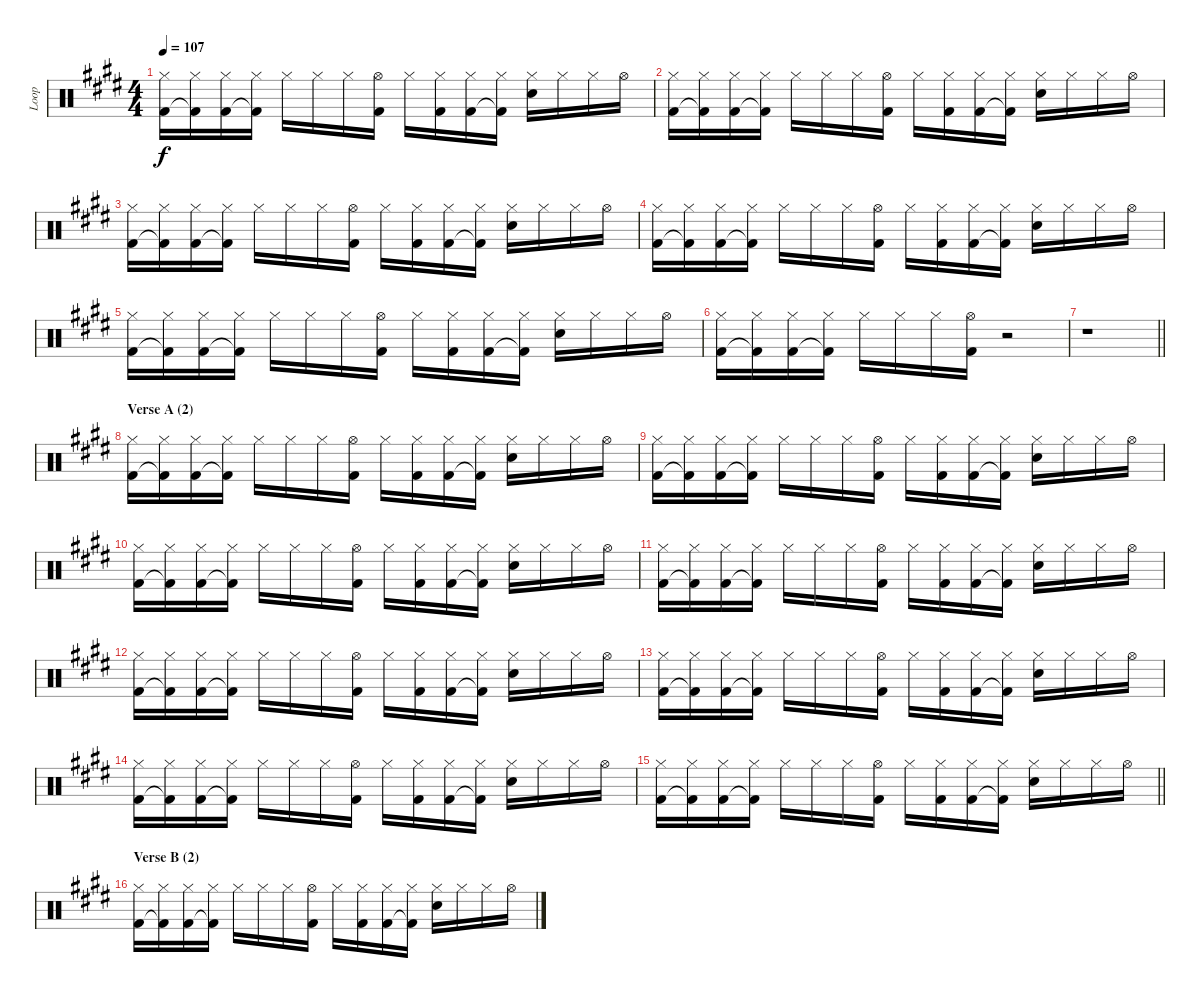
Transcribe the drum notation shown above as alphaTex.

\track ("Loop" "Loop") {instrument percussion}
\staff {score}
\articulation defaults
\ts (4 4)
\tempo 107
\clef neutral
\ks e
("Hi-Hat (closed)" "Kick (hit) 2").16{dy f} ("Hi-Hat (closed)" "Kick (hit) 2"{t}).16 ("Hi-Hat (closed)" "Kick (hit) 2").16 ("Hi-Hat (closed)" "Kick (hit) 2"{t}).16 "Hi-Hat (closed)".16 "Hi-Hat (closed)".16 "Hi-Hat (closed)".16 ("Hi-Hat (open)" "Kick (hit) 2").16 "Hi-Hat (closed)".16 ("Hi-Hat (closed)" "Kick (hit) 2").16 ("Hi-Hat (closed)" "Kick (hit) 2").16 ("Hi-Hat (closed)" "Kick (hit) 2"{t}).16 ("Hi-Hat (closed)" "Electric Snare (hit)").16 "Hi-Hat (closed)".16 "Hi-Hat (closed)".16 "Hi-Hat (open)".16 |
("Hi-Hat (closed)" "Kick (hit) 2").16 ("Hi-Hat (closed)" "Kick (hit) 2"{t}).16 ("Hi-Hat (closed)" "Kick (hit) 2").16 ("Hi-Hat (closed)" "Kick (hit) 2"{t}).16 "Hi-Hat (closed)".16 "Hi-Hat (closed)".16 "Hi-Hat (closed)".16 ("Hi-Hat (open)" "Kick (hit) 2").16 "Hi-Hat (closed)".16 ("Hi-Hat (closed)" "Kick (hit) 2").16 ("Hi-Hat (closed)" "Kick (hit) 2").16 ("Hi-Hat (closed)" "Kick (hit) 2"{t}).16 ("Hi-Hat (closed)" "Electric Snare (hit)").16 "Hi-Hat (closed)".16 "Hi-Hat (closed)".16 "Hi-Hat (open)".16 |
("Hi-Hat (closed)" "Kick (hit) 2").16 ("Hi-Hat (closed)" "Kick (hit) 2"{t}).16 ("Hi-Hat (closed)" "Kick (hit) 2").16 ("Hi-Hat (closed)" "Kick (hit) 2"{t}).16 "Hi-Hat (closed)".16 "Hi-Hat (closed)".16 "Hi-Hat (closed)".16 ("Hi-Hat (open)" "Kick (hit) 2").16 "Hi-Hat (closed)".16 ("Hi-Hat (closed)" "Kick (hit) 2").16 ("Hi-Hat (closed)" "Kick (hit) 2").16 ("Hi-Hat (closed)" "Kick (hit) 2"{t}).16 ("Hi-Hat (closed)" "Electric Snare (hit)").16 "Hi-Hat (closed)".16 "Hi-Hat (closed)".16 "Hi-Hat (open)".16 |
("Hi-Hat (closed)" "Kick (hit) 2").16 ("Hi-Hat (closed)" "Kick (hit) 2"{t}).16 ("Hi-Hat (closed)" "Kick (hit) 2").16 ("Hi-Hat (closed)" "Kick (hit) 2"{t}).16 "Hi-Hat (closed)".16 "Hi-Hat (closed)".16 "Hi-Hat (closed)".16 ("Hi-Hat (open)" "Kick (hit) 2").16 "Hi-Hat (closed)".16 ("Hi-Hat (closed)" "Kick (hit) 2").16 ("Hi-Hat (closed)" "Kick (hit) 2").16 ("Hi-Hat (closed)" "Kick (hit) 2"{t}).16 ("Hi-Hat (closed)" "Electric Snare (hit)").16 "Hi-Hat (closed)".16 "Hi-Hat (closed)".16 "Hi-Hat (open)".16 |
("Hi-Hat (closed)" "Kick (hit) 2").16 ("Hi-Hat (closed)" "Kick (hit) 2"{t}).16 ("Hi-Hat (closed)" "Kick (hit) 2").16 ("Hi-Hat (closed)" "Kick (hit) 2"{t}).16 "Hi-Hat (closed)".16 "Hi-Hat (closed)".16 "Hi-Hat (closed)".16 ("Hi-Hat (open)" "Kick (hit) 2").16 "Hi-Hat (closed)".16 ("Hi-Hat (closed)" "Kick (hit) 2").16 ("Hi-Hat (closed)" "Kick (hit) 2").16 ("Hi-Hat (closed)" "Kick (hit) 2"{t}).16 ("Hi-Hat (closed)" "Electric Snare (hit)").16 "Hi-Hat (closed)".16 "Hi-Hat (closed)".16 "Hi-Hat (open)".16 |
("Hi-Hat (closed)" "Kick (hit) 2").16 ("Hi-Hat (closed)" "Kick (hit) 2"{t}).16 ("Hi-Hat (closed)" "Kick (hit) 2").16 ("Hi-Hat (closed)" "Kick (hit) 2"{t}).16 "Hi-Hat (closed)".16 "Hi-Hat (closed)".16 "Hi-Hat (closed)".16 ("Hi-Hat (open)" "Kick (hit) 2").16 r.2 |
\barLineRight lightlight
r.1 |
\section ("" "Verse A (2)")
("Hi-Hat (closed)" "Kick (hit) 2").16 ("Hi-Hat (closed)" "Kick (hit) 2"{t}).16 ("Hi-Hat (closed)" "Kick (hit) 2").16 ("Hi-Hat (closed)" "Kick (hit) 2"{t}).16 "Hi-Hat (closed)".16 "Hi-Hat (closed)".16 "Hi-Hat (closed)".16 ("Hi-Hat (open)" "Kick (hit) 2").16 "Hi-Hat (closed)".16 ("Hi-Hat (closed)" "Kick (hit) 2").16 ("Hi-Hat (closed)" "Kick (hit) 2").16 ("Hi-Hat (closed)" "Kick (hit) 2"{t}).16 ("Hi-Hat (closed)" "Electric Snare (hit)").16 "Hi-Hat (closed)".16 "Hi-Hat (closed)".16 "Hi-Hat (open)".16 |
("Hi-Hat (closed)" "Kick (hit) 2").16 ("Hi-Hat (closed)" "Kick (hit) 2"{t}).16 ("Hi-Hat (closed)" "Kick (hit) 2").16 ("Hi-Hat (closed)" "Kick (hit) 2"{t}).16 "Hi-Hat (closed)".16 "Hi-Hat (closed)".16 "Hi-Hat (closed)".16 ("Hi-Hat (open)" "Kick (hit) 2").16 "Hi-Hat (closed)".16 ("Hi-Hat (closed)" "Kick (hit) 2").16 ("Hi-Hat (closed)" "Kick (hit) 2").16 ("Hi-Hat (closed)" "Kick (hit) 2"{t}).16 ("Hi-Hat (closed)" "Electric Snare (hit)").16 "Hi-Hat (closed)".16 "Hi-Hat (closed)".16 "Hi-Hat (open)".16 |
("Hi-Hat (closed)" "Kick (hit) 2").16 ("Hi-Hat (closed)" "Kick (hit) 2"{t}).16 ("Hi-Hat (closed)" "Kick (hit) 2").16 ("Hi-Hat (closed)" "Kick (hit) 2"{t}).16 "Hi-Hat (closed)".16 "Hi-Hat (closed)".16 "Hi-Hat (closed)".16 ("Hi-Hat (open)" "Kick (hit) 2").16 "Hi-Hat (closed)".16 ("Hi-Hat (closed)" "Kick (hit) 2").16 ("Hi-Hat (closed)" "Kick (hit) 2").16 ("Hi-Hat (closed)" "Kick (hit) 2"{t}).16 ("Hi-Hat (closed)" "Electric Snare (hit)").16 "Hi-Hat (closed)".16 "Hi-Hat (closed)".16 "Hi-Hat (open)".16 |
("Hi-Hat (closed)" "Kick (hit) 2").16 ("Hi-Hat (closed)" "Kick (hit) 2"{t}).16 ("Hi-Hat (closed)" "Kick (hit) 2").16 ("Hi-Hat (closed)" "Kick (hit) 2"{t}).16 "Hi-Hat (closed)".16 "Hi-Hat (closed)".16 "Hi-Hat (closed)".16 ("Hi-Hat (open)" "Kick (hit) 2").16 "Hi-Hat (closed)".16 ("Hi-Hat (closed)" "Kick (hit) 2").16 ("Hi-Hat (closed)" "Kick (hit) 2").16 ("Hi-Hat (closed)" "Kick (hit) 2"{t}).16 ("Hi-Hat (closed)" "Electric Snare (hit)").16 "Hi-Hat (closed)".16 "Hi-Hat (closed)".16 "Hi-Hat (open)".16 |
("Hi-Hat (closed)" "Kick (hit) 2").16 ("Hi-Hat (closed)" "Kick (hit) 2"{t}).16 ("Hi-Hat (closed)" "Kick (hit) 2").16 ("Hi-Hat (closed)" "Kick (hit) 2"{t}).16 "Hi-Hat (closed)".16 "Hi-Hat (closed)".16 "Hi-Hat (closed)".16 ("Hi-Hat (open)" "Kick (hit) 2").16 "Hi-Hat (closed)".16 ("Hi-Hat (closed)" "Kick (hit) 2").16 ("Hi-Hat (closed)" "Kick (hit) 2").16 ("Hi-Hat (closed)" "Kick (hit) 2"{t}).16 ("Hi-Hat (closed)" "Electric Snare (hit)").16 "Hi-Hat (closed)".16 "Hi-Hat (closed)".16 "Hi-Hat (open)".16 |
("Hi-Hat (closed)" "Kick (hit) 2").16 ("Hi-Hat (closed)" "Kick (hit) 2"{t}).16 ("Hi-Hat (closed)" "Kick (hit) 2").16 ("Hi-Hat (closed)" "Kick (hit) 2"{t}).16 "Hi-Hat (closed)".16 "Hi-Hat (closed)".16 "Hi-Hat (closed)".16 ("Hi-Hat (open)" "Kick (hit) 2").16 "Hi-Hat (closed)".16 ("Hi-Hat (closed)" "Kick (hit) 2").16 ("Hi-Hat (closed)" "Kick (hit) 2").16 ("Hi-Hat (closed)" "Kick (hit) 2"{t}).16 ("Hi-Hat (closed)" "Electric Snare (hit)").16 "Hi-Hat (closed)".16 "Hi-Hat (closed)".16 "Hi-Hat (open)".16 |
("Hi-Hat (closed)" "Kick (hit) 2").16 ("Hi-Hat (closed)" "Kick (hit) 2"{t}).16 ("Hi-Hat (closed)" "Kick (hit) 2").16 ("Hi-Hat (closed)" "Kick (hit) 2"{t}).16 "Hi-Hat (closed)".16 "Hi-Hat (closed)".16 "Hi-Hat (closed)".16 ("Hi-Hat (open)" "Kick (hit) 2").16 "Hi-Hat (closed)".16 ("Hi-Hat (closed)" "Kick (hit) 2").16 ("Hi-Hat (closed)" "Kick (hit) 2").16 ("Hi-Hat (closed)" "Kick (hit) 2"{t}).16 ("Hi-Hat (closed)" "Electric Snare (hit)").16 "Hi-Hat (closed)".16 "Hi-Hat (closed)".16 "Hi-Hat (open)".16 |
\barLineRight lightlight
("Hi-Hat (closed)" "Kick (hit) 2").16 ("Hi-Hat (closed)" "Kick (hit) 2"{t}).16 ("Hi-Hat (closed)" "Kick (hit) 2").16 ("Hi-Hat (closed)" "Kick (hit) 2"{t}).16 "Hi-Hat (closed)".16 "Hi-Hat (closed)".16 "Hi-Hat (closed)".16 ("Hi-Hat (open)" "Kick (hit) 2").16 "Hi-Hat (closed)".16 ("Hi-Hat (closed)" "Kick (hit) 2").16 ("Hi-Hat (closed)" "Kick (hit) 2").16 ("Hi-Hat (closed)" "Kick (hit) 2"{t}).16 ("Hi-Hat (closed)" "Electric Snare (hit)").16 "Hi-Hat (closed)".16 "Hi-Hat (closed)".16 "Hi-Hat (open)".16 |
\section ("" "Verse B (2)")
("Hi-Hat (closed)" "Kick (hit) 2").16 ("Hi-Hat (closed)" "Kick (hit) 2"{t}).16 ("Hi-Hat (closed)" "Kick (hit) 2").16 ("Hi-Hat (closed)" "Kick (hit) 2"{t}).16 "Hi-Hat (closed)".16 "Hi-Hat (closed)".16 "Hi-Hat (closed)".16 ("Hi-Hat (open)" "Kick (hit) 2").16 "Hi-Hat (closed)".16 ("Hi-Hat (closed)" "Kick (hit) 2").16 ("Hi-Hat (closed)" "Kick (hit) 2").16 ("Hi-Hat (closed)" "Kick (hit) 2"{t}).16 ("Hi-Hat (closed)" "Electric Snare (hit)").16 "Hi-Hat (closed)".16 "Hi-Hat (closed)".16 "Hi-Hat (open)".16
